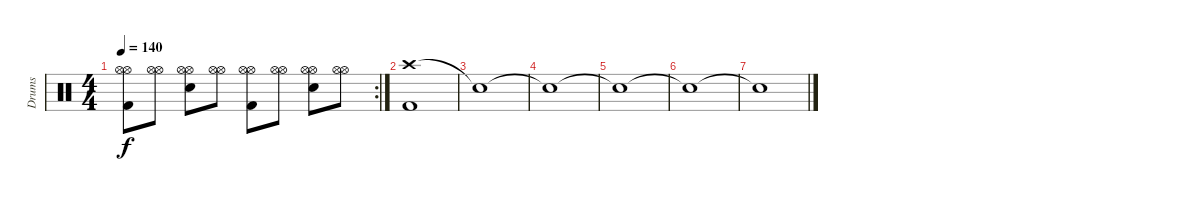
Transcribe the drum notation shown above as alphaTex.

\track ("Drums" "Drums") {instrument percussion}
\staff {score}
\articulation defaults
\rc 2
\ts (4 4)
\tempo 140
\clef neutral
\ks c
("Hi-Hat (open)" "Hi-Hat (open)" "Kick (hit) 2").8{dy f} ("Hi-Hat (open)" "Hi-Hat (open)").8 ("Hi-Hat (open)" "Hi-Hat (open)" "Electric Snare (hit)").8 ("Hi-Hat (open)" "Hi-Hat (open)").8 ("Hi-Hat (open)" "Hi-Hat (open)" "Kick (hit) 2").8 ("Hi-Hat (open)" "Hi-Hat (open)").8 ("Hi-Hat (open)" "Hi-Hat (open)" "Electric Snare (hit)").8 ("Hi-Hat (open)" "Hi-Hat (open)").8 |
("Crash high (hit)" "Kick (hit) 2").1 |
"Snare (hit)"{t}.1 |
"Snare (hit)"{t}.1 |
"Snare (hit)"{t}.1 |
"Snare (hit)"{t}.1 |
"Snare (hit)"{t}.1
